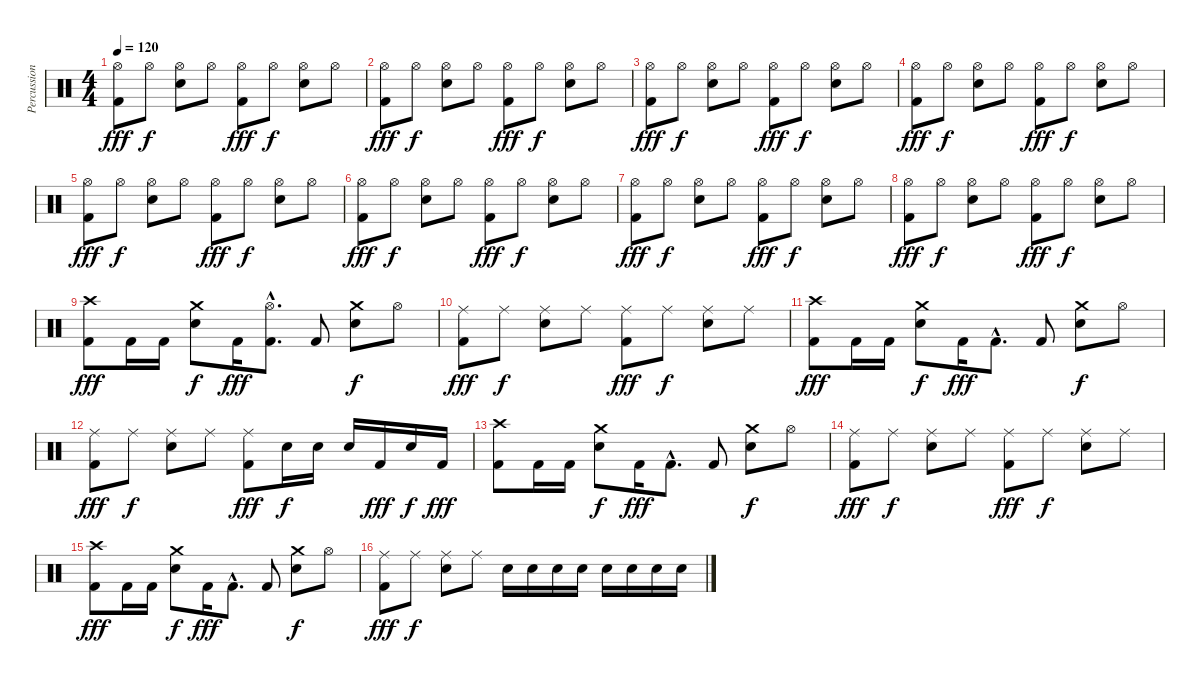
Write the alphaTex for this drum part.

\track ("Percussion" "Percussion") {instrument percussion}
\staff {score}
\articulation defaults
\ts (4 4)
\tempo 120
\clef neutral
\ks c
("Hi-Hat (open)" "Kick (hit) 2").8{dy fff} "Hi-Hat (open)".8{dy f} ("Hi-Hat (open)" "Snare (hit) 2").8 "Hi-Hat (open)".8 ("Hi-Hat (open)" "Kick (hit) 2").8{dy fff} "Hi-Hat (open)".8{dy f} ("Hi-Hat (open)" "Snare (hit) 2").8 "Hi-Hat (open)".8 |
("Hi-Hat (open)" "Kick (hit) 2").8{dy fff} "Hi-Hat (open)".8{dy f} ("Hi-Hat (open)" "Snare (hit) 2").8 "Hi-Hat (open)".8 ("Hi-Hat (open)" "Kick (hit) 2").8{dy fff} "Hi-Hat (open)".8{dy f} ("Hi-Hat (open)" "Snare (hit) 2").8 "Hi-Hat (open)".8 |
("Hi-Hat (open)" "Kick (hit) 2").8{dy fff} "Hi-Hat (open)".8{dy f} ("Hi-Hat (open)" "Snare (hit) 2").8 "Hi-Hat (open)".8 ("Hi-Hat (open)" "Kick (hit) 2").8{dy fff} "Hi-Hat (open)".8{dy f} ("Hi-Hat (open)" "Snare (hit) 2").8 "Hi-Hat (open)".8 |
("Hi-Hat (open)" "Kick (hit) 2").8{dy fff} "Hi-Hat (open)".8{dy f} ("Hi-Hat (open)" "Snare (hit) 2").8 "Hi-Hat (open)".8 ("Hi-Hat (open)" "Kick (hit) 2").8{dy fff} "Hi-Hat (open)".8{dy f} ("Hi-Hat (open)" "Snare (hit) 2").8 "Hi-Hat (open)".8 |
("Hi-Hat (open)" "Kick (hit) 2").8{dy fff} "Hi-Hat (open)".8{dy f} ("Hi-Hat (open)" "Snare (hit) 2").8 "Hi-Hat (open)".8 ("Hi-Hat (open)" "Kick (hit) 2").8{dy fff} "Hi-Hat (open)".8{dy f} ("Hi-Hat (open)" "Snare (hit) 2").8 "Hi-Hat (open)".8 |
("Hi-Hat (open)" "Kick (hit) 2").8{dy fff} "Hi-Hat (open)".8{dy f} ("Hi-Hat (open)" "Snare (hit) 2").8 "Hi-Hat (open)".8 ("Hi-Hat (open)" "Kick (hit) 2").8{dy fff} "Hi-Hat (open)".8{dy f} ("Hi-Hat (open)" "Snare (hit) 2").8 "Hi-Hat (open)".8 |
("Hi-Hat (open)" "Kick (hit) 2").8{dy fff} "Hi-Hat (open)".8{dy f} ("Hi-Hat (open)" "Snare (hit) 2").8 "Hi-Hat (open)".8 ("Hi-Hat (open)" "Kick (hit) 2").8{dy fff} "Hi-Hat (open)".8{dy f} ("Hi-Hat (open)" "Snare (hit) 2").8 "Hi-Hat (open)".8 |
("Hi-Hat (open)" "Kick (hit) 2").8{dy fff} "Hi-Hat (open)".8{dy f} ("Hi-Hat (open)" "Snare (hit) 2").8 "Hi-Hat (open)".8 ("Hi-Hat (open)" "Kick (hit) 2").8{dy fff} "Hi-Hat (open)".8{dy f} ("Hi-Hat (open)" "Snare (hit) 2").8 "Hi-Hat (open)".8 |
("Crash high (hit)" "Kick (hit) 2").8{dy fff} "Kick (hit) 2".16 "Kick (hit) 2".16 ("Crash medium (hit)" "Snare (hit) 2").8{dy f} "Kick (hit) 2".16{dy fff} ("Hi-Hat (open)"{hac} "Kick (hit) 2"{hac}).8{d} "Kick (hit) 2".8 ("Crash medium (hit)" "Snare (hit) 2").8{dy f} "Hi-Hat (open)".8 |
("Ride (middle)" "Kick (hit) 2").8{dy fff} "Ride (middle)".8{dy f} ("Ride (middle)" "Snare (hit) 2").8 "Ride (middle)".8 ("Ride (middle)" "Kick (hit) 2").8{dy fff} "Ride (middle)".8{dy f} ("Ride (middle)" "Snare (hit) 2").8 "Ride (middle)".8 |
("Crash high (hit)" "Kick (hit) 2").8{dy fff} "Kick (hit) 2".16 "Kick (hit) 2".16 ("Crash medium (hit)" "Snare (hit) 2").8{dy f} "Kick (hit) 2".16{dy fff} "Kick (hit) 2"{hac}.8{d} "Kick (hit) 2".8 ("Crash medium (hit)" "Snare (hit) 2").8{dy f} "Hi-Hat (open)".8 |
("Ride (middle)" "Kick (hit) 2").8{dy fff} "Ride (middle)".8{dy f} ("Ride (middle)" "Snare (hit) 2").8 "Ride (middle)".8 ("Ride (middle)" "Kick (hit) 2").8{dy fff} "Snare (hit) 2".16{dy f} "Snare (hit) 2".16 "Snare (hit) 2".16 "Kick (hit) 2".16{dy fff} "Snare (hit) 2".16{dy f} "Kick (hit) 2".16{dy fff} |
("Crash high (hit)" "Kick (hit) 2").8 "Kick (hit) 2".16 "Kick (hit) 2".16 ("Crash medium (hit)" "Snare (hit) 2").8{dy f} "Kick (hit) 2".16{dy fff} "Kick (hit) 2"{hac}.8{d} "Kick (hit) 2".8 ("Crash medium (hit)" "Snare (hit) 2").8{dy f} "Hi-Hat (open)".8 |
("Ride (middle)" "Kick (hit) 2").8{dy fff} "Ride (middle)".8{dy f} ("Ride (middle)" "Snare (hit) 2").8 "Ride (middle)".8 ("Ride (middle)" "Kick (hit) 2").8{dy fff} "Ride (middle)".8{dy f} ("Ride (middle)" "Snare (hit) 2").8 "Ride (middle)".8 |
("Crash high (hit)" "Kick (hit) 2").8{dy fff} "Kick (hit) 2".16 "Kick (hit) 2".16 ("Crash medium (hit)" "Snare (hit) 2").8{dy f} "Kick (hit) 2".16{dy fff} "Kick (hit) 2"{hac}.8{d} "Kick (hit) 2".8 ("Crash medium (hit)" "Snare (hit) 2").8{dy f} "Hi-Hat (open)".8 |
("Ride (middle)" "Kick (hit) 2").8{dy fff} "Ride (middle)".8{dy f} ("Ride (middle)" "Snare (hit) 2").8 "Ride (middle)".8 "Snare (hit) 2".16 "Snare (hit) 2".16 "Snare (hit) 2".16 "Snare (hit) 2".16 "Snare (hit) 2".16 "Snare (hit) 2".16 "Snare (hit) 2".16 "Snare (hit) 2".16
